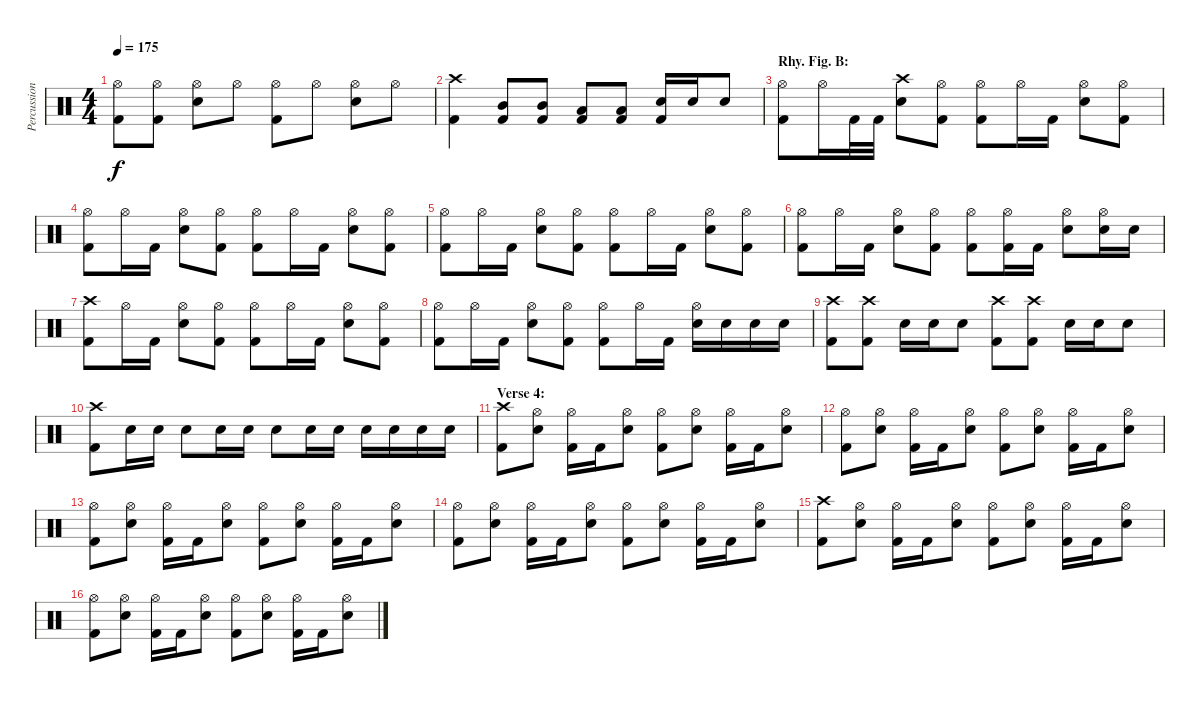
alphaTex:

\track ("Percussion" "Percussion") {instrument percussion}
\staff {score}
\articulation defaults
\ts (4 4)
\tempo 175
\clef neutral
\ks c
("Hi-Hat (open)"{t} "Kick (hit) 2"{t}).8{dy f} ("Hi-Hat (open)" "Kick (hit) 2").8 ("Hi-Hat (open)" "Electric Snare (hit)").8 "Hi-Hat (open)".8 ("Hi-Hat (open)" "Kick (hit) 2").8 "Hi-Hat (open)".8 ("Hi-Hat (open)" "Electric Snare (hit)").8 "Hi-Hat (open)".8 |
("Crash high (hit)" "Kick (hit) 2").4 ("Mid Tom (hit)" "Kick (hit) 2").8 ("Mid Tom (hit)" "Kick (hit) 2").8 ("Low Tom (hit)" "Kick (hit) 2").8 ("Low Tom (hit)" "Kick (hit) 2").8 ("Electric Snare (hit)" "Kick (hit) 2").16 "Electric Snare (hit)".16 "Electric Snare (hit)".8 |
\section ("" "Rhy. Fig. B:")
("Hi-Hat (open)" "Kick (hit) 2").8 "Hi-Hat (open)".16 "Kick (hit) 2".32 "Kick (hit) 2".32 ("Crash high (hit)" "Electric Snare (hit)").8 ("Hi-Hat (open)" "Kick (hit) 2").8 ("Hi-Hat (open)" "Kick (hit) 2").8 "Hi-Hat (open)".16 "Kick (hit) 2".16 ("Hi-Hat (open)" "Electric Snare (hit)").8 ("Hi-Hat (open)" "Kick (hit) 2").8 |
("Hi-Hat (open)" "Kick (hit) 2").8 "Hi-Hat (open)".16 "Kick (hit) 2".16 ("Hi-Hat (open)" "Electric Snare (hit)").8 ("Hi-Hat (open)" "Kick (hit) 2").8 ("Hi-Hat (open)" "Kick (hit) 2").8 "Hi-Hat (open)".16 "Kick (hit) 2".16 ("Hi-Hat (open)" "Electric Snare (hit)").8 ("Hi-Hat (open)" "Kick (hit) 2").8 |
("Hi-Hat (open)" "Kick (hit) 2").8 "Hi-Hat (open)".16 "Kick (hit) 2".16 ("Hi-Hat (open)" "Electric Snare (hit)").8 ("Hi-Hat (open)" "Kick (hit) 2").8 ("Hi-Hat (open)" "Kick (hit) 2").8 "Hi-Hat (open)".16 "Kick (hit) 2".16 ("Hi-Hat (open)" "Electric Snare (hit)").8 ("Hi-Hat (open)" "Kick (hit) 2").8 |
("Hi-Hat (open)" "Kick (hit) 2").8 "Hi-Hat (open)".16 "Kick (hit) 2".16 ("Hi-Hat (open)" "Electric Snare (hit)").8 ("Hi-Hat (open)" "Kick (hit) 2").8 ("Hi-Hat (open)" "Kick (hit) 2").8 ("Hi-Hat (open)" "Kick (hit) 2").16 "Kick (hit) 2".16 ("Hi-Hat (open)" "Electric Snare (hit)").8 ("Hi-Hat (open)" "Electric Snare (hit)").16 "Electric Snare (hit)".16 |
("Crash high (hit)" "Kick (hit) 2").8 "Hi-Hat (open)".16 "Kick (hit) 2".16 ("Hi-Hat (open)" "Electric Snare (hit)").8 ("Hi-Hat (open)" "Kick (hit) 2").8 ("Hi-Hat (open)" "Kick (hit) 2").8 "Hi-Hat (open)".16 "Kick (hit) 2".16 ("Hi-Hat (open)" "Electric Snare (hit)").8 ("Hi-Hat (open)" "Kick (hit) 2").8 |
("Hi-Hat (open)" "Kick (hit) 2").8 "Hi-Hat (open)".16 "Kick (hit) 2".16 ("Hi-Hat (open)" "Electric Snare (hit)").8 ("Hi-Hat (open)" "Kick (hit) 2").8 ("Hi-Hat (open)" "Kick (hit) 2").8 "Hi-Hat (open)".16 "Kick (hit) 2".16 ("Hi-Hat (open)" "Electric Snare (hit)").16 "Electric Snare (hit)".16 "Electric Snare (hit)".16 "Electric Snare (hit)".16 |
("Crash high (hit)" "Kick (hit) 2").8 ("Crash high (hit)" "Kick (hit) 2").8 "Electric Snare (hit)".16 "Electric Snare (hit)".16 "Electric Snare (hit)".8 ("Crash high (hit)" "Kick (hit) 2").8 ("Crash high (hit)" "Kick (hit) 2").8 "Electric Snare (hit)".16 "Electric Snare (hit)".16 "Electric Snare (hit)".8 |
("Crash high (hit)" "Kick (hit) 2").8 "Electric Snare (hit)".16 "Electric Snare (hit)".16 "Electric Snare (hit)".8 "Electric Snare (hit)".16 "Electric Snare (hit)".16 "Electric Snare (hit)".8 "Electric Snare (hit)".16 "Electric Snare (hit)".16 "Electric Snare (hit)".16 "Electric Snare (hit)".16 "Electric Snare (hit)".16 "Electric Snare (hit)".16 |
\section ("" "Verse 4:")
("Crash high (hit)" "Kick (hit) 2").8 ("Hi-Hat (open)" "Electric Snare (hit)").8 ("Hi-Hat (open)" "Kick (hit) 2").16 "Kick (hit) 2".16 ("Hi-Hat (open)" "Electric Snare (hit)").8 ("Hi-Hat (open)" "Kick (hit) 2").8 ("Hi-Hat (open)" "Electric Snare (hit)").8 ("Hi-Hat (open)" "Kick (hit) 2").16 "Kick (hit) 2".16 ("Hi-Hat (open)" "Electric Snare (hit)").8 |
("Hi-Hat (open)" "Kick (hit) 2").8 ("Hi-Hat (open)" "Electric Snare (hit)").8 ("Hi-Hat (open)" "Kick (hit) 2").16 "Kick (hit) 2".16 ("Hi-Hat (open)" "Electric Snare (hit)").8 ("Hi-Hat (open)" "Kick (hit) 2").8 ("Hi-Hat (open)" "Electric Snare (hit)").8 ("Hi-Hat (open)" "Kick (hit) 2").16 "Kick (hit) 2".16 ("Hi-Hat (open)" "Electric Snare (hit)").8 |
("Hi-Hat (open)" "Kick (hit) 2").8 ("Hi-Hat (open)" "Electric Snare (hit)").8 ("Hi-Hat (open)" "Kick (hit) 2").16 "Kick (hit) 2".16 ("Hi-Hat (open)" "Electric Snare (hit)").8 ("Hi-Hat (open)" "Kick (hit) 2").8 ("Hi-Hat (open)" "Electric Snare (hit)").8 ("Hi-Hat (open)" "Kick (hit) 2").16 "Kick (hit) 2".16 ("Hi-Hat (open)" "Electric Snare (hit)").8 |
("Hi-Hat (open)" "Kick (hit) 2").8 ("Hi-Hat (open)" "Electric Snare (hit)").8 ("Hi-Hat (open)" "Kick (hit) 2").16 "Kick (hit) 2".16 ("Hi-Hat (open)" "Electric Snare (hit)").8 ("Hi-Hat (open)" "Kick (hit) 2").8 ("Hi-Hat (open)" "Electric Snare (hit)").8 ("Hi-Hat (open)" "Kick (hit) 2").16 "Kick (hit) 2".16 ("Hi-Hat (open)" "Electric Snare (hit)").8 |
("Crash high (hit)" "Kick (hit) 2").8 ("Hi-Hat (open)" "Electric Snare (hit)").8 ("Hi-Hat (open)" "Kick (hit) 2").16 "Kick (hit) 2".16 ("Hi-Hat (open)" "Electric Snare (hit)").8 ("Hi-Hat (open)" "Kick (hit) 2").8 ("Hi-Hat (open)" "Electric Snare (hit)").8 ("Hi-Hat (open)" "Kick (hit) 2").16 "Kick (hit) 2".16 ("Hi-Hat (open)" "Electric Snare (hit)").8 |
("Hi-Hat (open)" "Kick (hit) 2").8 ("Hi-Hat (open)" "Electric Snare (hit)").8 ("Hi-Hat (open)" "Kick (hit) 2").16 "Kick (hit) 2".16 ("Hi-Hat (open)" "Electric Snare (hit)").8 ("Hi-Hat (open)" "Kick (hit) 2").8 ("Hi-Hat (open)" "Electric Snare (hit)").8 ("Hi-Hat (open)" "Kick (hit) 2").16 "Kick (hit) 2".16 ("Hi-Hat (open)" "Electric Snare (hit)").8
